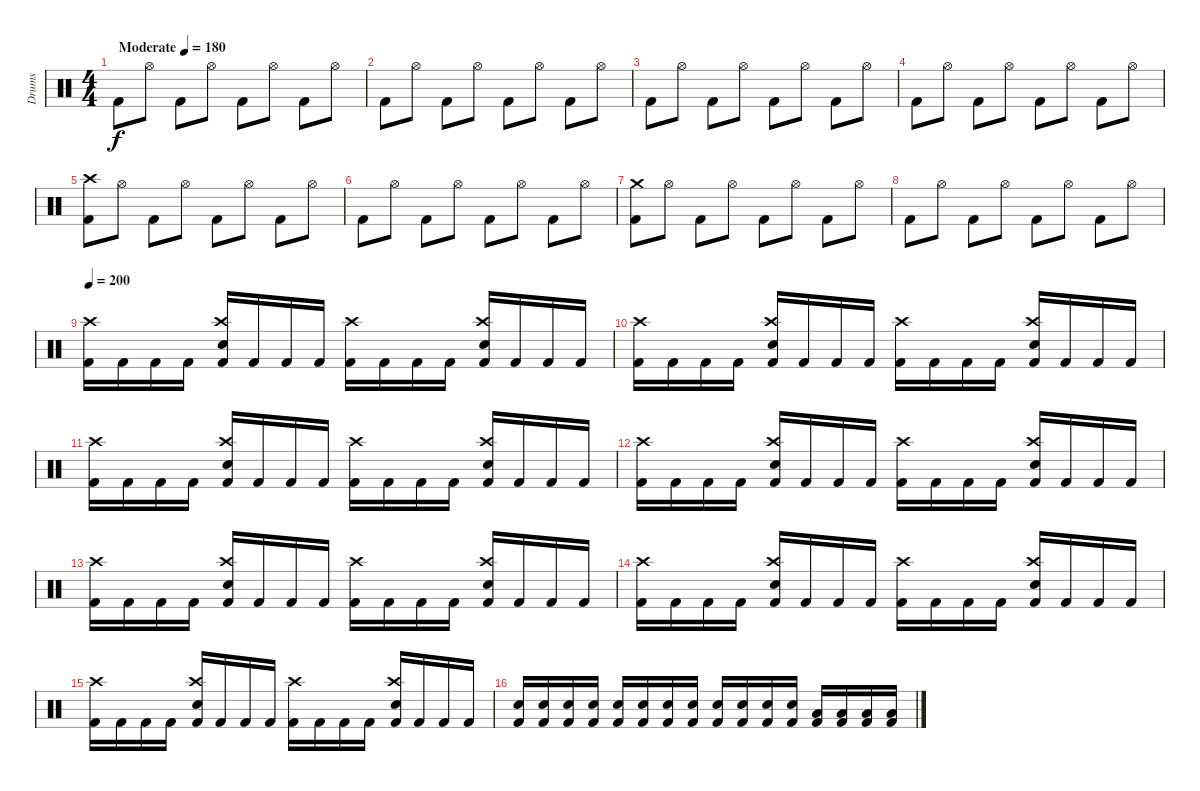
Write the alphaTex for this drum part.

\track ("Drums" "Drums") {instrument percussion}
\staff {score}
\articulation defaults
\ts (4 4)
\tempo (180 "Moderate")
\clef neutral
\ks c "Kick (hit) 2".8{dy f} "Hi-Hat (open)".8 "Kick (hit) 2".8 "Hi-Hat (open)".8 "Kick (hit) 2".8 "Hi-Hat (open)".8 "Kick (hit) 2".8 "Hi-Hat (open)".8
|
"Kick (hit) 2".8 "Hi-Hat (open)".8 "Kick (hit) 2".8 "Hi-Hat (open)".8 "Kick (hit) 2".8 "Hi-Hat (open)".8 "Kick (hit) 2".8 "Hi-Hat (open)".8 |
"Kick (hit) 2".8 "Hi-Hat (open)".8 "Kick (hit) 2".8 "Hi-Hat (open)".8 "Kick (hit) 2".8 "Hi-Hat (open)".8 "Kick (hit) 2".8 "Hi-Hat (open)".8 |
"Kick (hit) 2".8 "Hi-Hat (open)".8 "Kick (hit) 2".8 "Hi-Hat (open)".8 "Kick (hit) 2".8 "Hi-Hat (open)".8 "Kick (hit) 2".8 "Hi-Hat (open)".8 |
("Crash high (hit)" "Kick (hit) 2").8 "Hi-Hat (open)".8 "Kick (hit) 2".8 "Hi-Hat (open)".8 "Kick (hit) 2".8 "Hi-Hat (open)".8 "Kick (hit) 2".8 "Hi-Hat (open)".8 |
"Kick (hit) 2".8 "Hi-Hat (open)".8 "Kick (hit) 2".8 "Hi-Hat (open)".8 "Kick (hit) 2".8 "Hi-Hat (open)".8 "Kick (hit) 2".8 "Hi-Hat (open)".8 |
("Crash medium (hit)" "Kick (hit) 2").8 "Hi-Hat (open)".8 "Kick (hit) 2".8 "Hi-Hat (open)".8 "Kick (hit) 2".8 "Hi-Hat (open)".8 "Kick (hit) 2".8 "Hi-Hat (open)".8 |
"Kick (hit) 2".8 "Hi-Hat (open)".8 "Kick (hit) 2".8 "Hi-Hat (open)".8 "Kick (hit) 2".8 "Hi-Hat (open)".8 "Kick (hit) 2".8 "Hi-Hat (open)".8 |
\tempo 200
("Crash high (hit)" "Kick (hit) 2").16 "Kick (hit) 2".16 "Kick (hit) 2".16 "Kick (hit) 2".16 ("Crash high (hit)" "Snare (hit) 2" "Kick (hit) 2").16 "Kick (hit) 2".16 "Kick (hit) 2".16 "Kick (hit) 2".16 ("Crash high (hit)" "Kick (hit) 2").16 "Kick (hit) 2".16 "Kick (hit) 2".16 "Kick (hit) 2".16 ("Crash high (hit)" "Snare (hit) 2" "Kick (hit) 2").16 "Kick (hit) 2".16 "Kick (hit) 2".16 "Kick (hit) 2".16 |
("Crash high (hit)" "Kick (hit) 2").16 "Kick (hit) 2".16 "Kick (hit) 2".16 "Kick (hit) 2".16 ("Crash high (hit)" "Snare (hit) 2" "Kick (hit) 2").16 "Kick (hit) 2".16 "Kick (hit) 2".16 "Kick (hit) 2".16 ("Crash high (hit)" "Kick (hit) 2").16 "Kick (hit) 2".16 "Kick (hit) 2".16 "Kick (hit) 2".16 ("Crash high (hit)" "Snare (hit) 2" "Kick (hit) 2").16 "Kick (hit) 2".16 "Kick (hit) 2".16 "Kick (hit) 2".16 |
("Crash high (hit)" "Kick (hit) 2").16 "Kick (hit) 2".16 "Kick (hit) 2".16 "Kick (hit) 2".16 ("Crash high (hit)" "Snare (hit) 2" "Kick (hit) 2").16 "Kick (hit) 2".16 "Kick (hit) 2".16 "Kick (hit) 2".16 ("Crash high (hit)" "Kick (hit) 2").16 "Kick (hit) 2".16 "Kick (hit) 2".16 "Kick (hit) 2".16 ("Crash high (hit)" "Snare (hit) 2" "Kick (hit) 2").16 "Kick (hit) 2".16 "Kick (hit) 2".16 "Kick (hit) 2".16 |
("Crash high (hit)" "Kick (hit) 2").16 "Kick (hit) 2".16 "Kick (hit) 2".16 "Kick (hit) 2".16 ("Crash high (hit)" "Snare (hit) 2" "Kick (hit) 2").16 "Kick (hit) 2".16 "Kick (hit) 2".16 "Kick (hit) 2".16 ("Crash high (hit)" "Kick (hit) 2").16 "Kick (hit) 2".16 "Kick (hit) 2".16 "Kick (hit) 2".16 ("Crash high (hit)" "Snare (hit) 2" "Kick (hit) 2").16 "Kick (hit) 2".16 "Kick (hit) 2".16 "Kick (hit) 2".16 |
("Crash high (hit)" "Kick (hit) 2").16 "Kick (hit) 2".16 "Kick (hit) 2".16 "Kick (hit) 2".16 ("Crash high (hit)" "Snare (hit) 2" "Kick (hit) 2").16 "Kick (hit) 2".16 "Kick (hit) 2".16 "Kick (hit) 2".16 ("Crash high (hit)" "Kick (hit) 2").16 "Kick (hit) 2".16 "Kick (hit) 2".16 "Kick (hit) 2".16 ("Crash high (hit)" "Snare (hit) 2" "Kick (hit) 2").16 "Kick (hit) 2".16 "Kick (hit) 2".16 "Kick (hit) 2".16 |
("Crash high (hit)" "Kick (hit) 2").16 "Kick (hit) 2".16 "Kick (hit) 2".16 "Kick (hit) 2".16 ("Crash high (hit)" "Snare (hit) 2" "Kick (hit) 2").16 "Kick (hit) 2".16 "Kick (hit) 2".16 "Kick (hit) 2".16 ("Crash high (hit)" "Kick (hit) 2").16 "Kick (hit) 2".16 "Kick (hit) 2".16 "Kick (hit) 2".16 ("Crash high (hit)" "Snare (hit) 2" "Kick (hit) 2").16 "Kick (hit) 2".16 "Kick (hit) 2".16 "Kick (hit) 2".16 |
("Crash high (hit)" "Kick (hit) 2").16 "Kick (hit) 2".16 "Kick (hit) 2".16 "Kick (hit) 2".16 ("Crash high (hit)" "Snare (hit) 2" "Kick (hit) 2").16 "Kick (hit) 2".16 "Kick (hit) 2".16 "Kick (hit) 2".16 ("Crash high (hit)" "Kick (hit) 2").16 "Kick (hit) 2".16 "Kick (hit) 2".16 "Kick (hit) 2".16 ("Crash high (hit)" "Snare (hit) 2" "Kick (hit) 2").16 "Kick (hit) 2".16 "Kick (hit) 2".16 "Kick (hit) 2".16 |
("Snare (hit) 2" "Kick (hit) 2").16 ("Snare (hit) 2" "Kick (hit) 2").16 ("Snare (hit) 2" "Kick (hit) 2").16 ("Snare (hit) 2" "Kick (hit) 2").16 ("Snare (hit) 2" "Kick (hit) 2").16 ("Snare (hit) 2" "Kick (hit) 2").16 ("Snare (hit) 2" "Kick (hit) 2").16 ("Snare (hit) 2" "Kick (hit) 2").16 ("Snare (hit) 2" "Kick (hit) 2").16 ("Snare (hit) 2" "Kick (hit) 2").16 ("Snare (hit) 2" "Kick (hit) 2").16 ("Snare (hit) 2" "Kick (hit) 2").16 ("Low Tom (hit)" "Kick (hit) 2").16 ("Low Tom (hit)" "Kick (hit) 2").16 ("Low Tom (hit)" "Kick (hit) 2").16 ("Low Tom (hit)" "Kick (hit) 2").16
